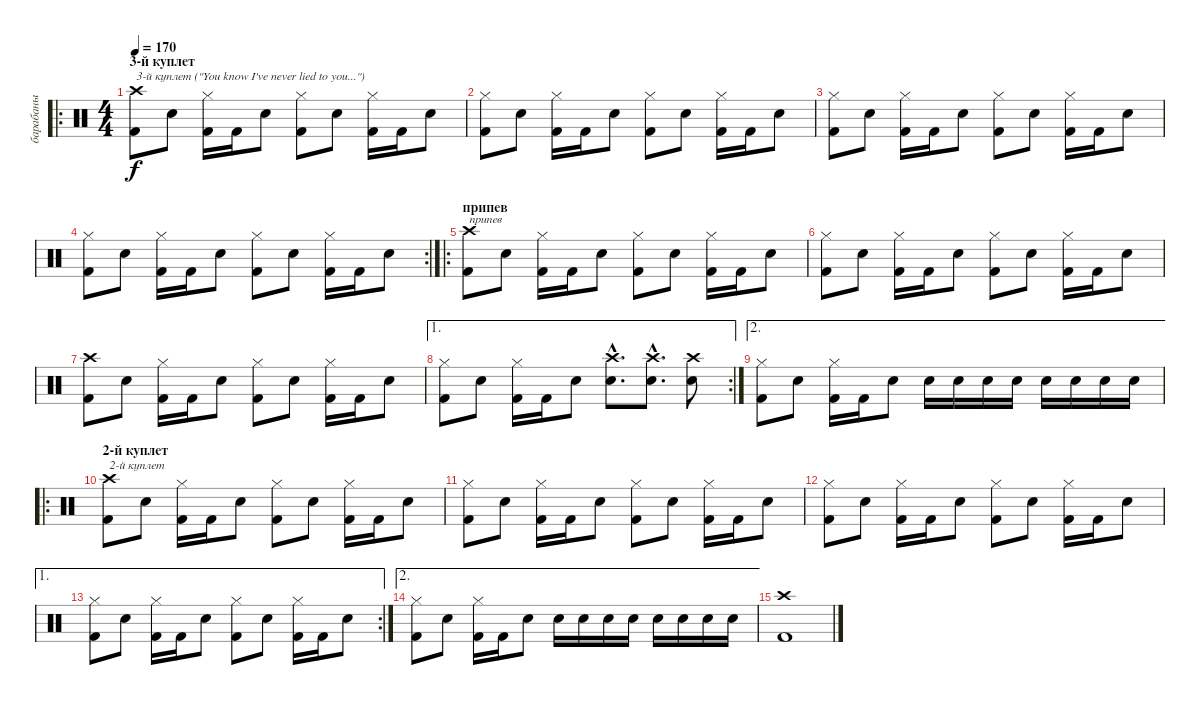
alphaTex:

\track ("барабаны" "барабаны") {instrument percussion}
\staff {score}
\articulation defaults
\ro
\ts (4 4)
\section ("" "3-й куплет")
\tempo 170
\clef neutral
\ks c
("Crash high (hit)" "Kick (hit) 2").8{txt "3-й куплет (\"You know I've never lied to you...\")" dy f} "Snare (hit) 2".8 ("Hi-Hat (closed)" "Kick (hit) 2").16 "Kick (hit) 2".16 "Snare (hit) 2".8 ("Hi-Hat (closed)" "Kick (hit) 2").8 "Snare (hit) 2".8 ("Hi-Hat (closed)" "Kick (hit) 2").16 "Kick (hit) 2".16 "Snare (hit) 2".8 |
("Hi-Hat (closed)" "Kick (hit) 2").8 "Snare (hit) 2".8 ("Hi-Hat (closed)" "Kick (hit) 2").16 "Kick (hit) 2".16 "Snare (hit) 2".8 ("Hi-Hat (closed)" "Kick (hit) 2").8 "Snare (hit) 2".8 ("Hi-Hat (closed)" "Kick (hit) 2").16 "Kick (hit) 2".16 "Snare (hit) 2".8 |
("Hi-Hat (closed)" "Kick (hit) 2").8 "Snare (hit) 2".8 ("Hi-Hat (closed)" "Kick (hit) 2").16 "Kick (hit) 2".16 "Snare (hit) 2".8 ("Hi-Hat (closed)" "Kick (hit) 2").8 "Snare (hit) 2".8 ("Hi-Hat (closed)" "Kick (hit) 2").16 "Kick (hit) 2".16 "Snare (hit) 2".8 |
\rc 2
("Hi-Hat (closed)" "Kick (hit) 2").8 "Snare (hit) 2".8 ("Hi-Hat (closed)" "Kick (hit) 2").16 "Kick (hit) 2".16 "Snare (hit) 2".8 ("Hi-Hat (closed)" "Kick (hit) 2").8 "Snare (hit) 2".8 ("Hi-Hat (closed)" "Kick (hit) 2").16 "Kick (hit) 2".16 "Snare (hit) 2".8 |
\ro
\section ("" "припев")
("Crash high (hit)" "Kick (hit) 2").8{txt "припев"} "Snare (hit) 2".8 ("Hi-Hat (closed)" "Kick (hit) 2").16 "Kick (hit) 2".16 "Snare (hit) 2".8 ("Hi-Hat (closed)" "Kick (hit) 2").8 "Snare (hit) 2".8 ("Hi-Hat (closed)" "Kick (hit) 2").16 "Kick (hit) 2".16 "Snare (hit) 2".8 |
("Hi-Hat (closed)" "Kick (hit) 2").8 "Snare (hit) 2".8 ("Hi-Hat (closed)" "Kick (hit) 2").16 "Kick (hit) 2".16 "Snare (hit) 2".8 ("Hi-Hat (closed)" "Kick (hit) 2").8 "Snare (hit) 2".8 ("Hi-Hat (closed)" "Kick (hit) 2").16 "Kick (hit) 2".16 "Snare (hit) 2".8 |
("Crash high (hit)" "Kick (hit) 2").8 "Snare (hit) 2".8 ("Hi-Hat (closed)" "Kick (hit) 2").16 "Kick (hit) 2".16 "Snare (hit) 2".8 ("Hi-Hat (closed)" "Kick (hit) 2").8 "Snare (hit) 2".8 ("Hi-Hat (closed)" "Kick (hit) 2").16 "Kick (hit) 2".16 "Snare (hit) 2".8 |
\ae 1
\rc 2
("Hi-Hat (closed)" "Kick (hit) 2").8 "Snare (hit) 2".8 ("Hi-Hat (closed)" "Kick (hit) 2").16 "Kick (hit) 2".16 "Snare (hit) 2".8 ("Crash high (hit)"{hac} "Snare (hit) 2"{hac}).8{d} ("Crash high (hit)"{hac} "Snare (hit) 2"{hac}).8{d} ("Crash high (hit)" "Snare (hit) 2").8 |
\ae 2
("Hi-Hat (closed)" "Kick (hit) 2").8 "Snare (hit) 2".8 ("Hi-Hat (closed)" "Kick (hit) 2").16 "Kick (hit) 2".16 "Snare (hit) 2".8 "Snare (hit) 2".16 "Snare (hit) 2".16 "Snare (hit) 2".16 "Snare (hit) 2".16 "Snare (hit) 2".16 "Snare (hit) 2".16 "Snare (hit) 2".16 "Snare (hit) 2".16 |
\ro
\section ("" "2-й куплет")
("Crash high (hit)" "Kick (hit) 2").8{txt "2-й куплет"} "Snare (hit) 2".8 ("Hi-Hat (closed)" "Kick (hit) 2").16 "Kick (hit) 2".16 "Snare (hit) 2".8 ("Hi-Hat (closed)" "Kick (hit) 2").8 "Snare (hit) 2".8 ("Hi-Hat (closed)" "Kick (hit) 2").16 "Kick (hit) 2".16 "Snare (hit) 2".8 |
("Hi-Hat (closed)" "Kick (hit) 2").8 "Snare (hit) 2".8 ("Hi-Hat (closed)" "Kick (hit) 2").16 "Kick (hit) 2".16 "Snare (hit) 2".8 ("Hi-Hat (closed)" "Kick (hit) 2").8 "Snare (hit) 2".8 ("Hi-Hat (closed)" "Kick (hit) 2").16 "Kick (hit) 2".16 "Snare (hit) 2".8 |
("Hi-Hat (closed)" "Kick (hit) 2").8 "Snare (hit) 2".8 ("Hi-Hat (closed)" "Kick (hit) 2").16 "Kick (hit) 2".16 "Snare (hit) 2".8 ("Hi-Hat (closed)" "Kick (hit) 2").8 "Snare (hit) 2".8 ("Hi-Hat (closed)" "Kick (hit) 2").16 "Kick (hit) 2".16 "Snare (hit) 2".8 |
\ae 1
\rc 2
("Hi-Hat (closed)" "Kick (hit) 2").8 "Snare (hit) 2".8 ("Hi-Hat (closed)" "Kick (hit) 2").16 "Kick (hit) 2".16 "Snare (hit) 2".8 ("Hi-Hat (closed)" "Kick (hit) 2").8 "Snare (hit) 2".8 ("Hi-Hat (closed)" "Kick (hit) 2").16 "Kick (hit) 2".16 "Snare (hit) 2".8 |
\ae 2
("Hi-Hat (closed)" "Kick (hit) 2").8 "Snare (hit) 2".8 ("Hi-Hat (closed)" "Kick (hit) 2").16 "Kick (hit) 2".16 "Snare (hit) 2".8 "Snare (hit) 2".16 "Snare (hit) 2".16 "Snare (hit) 2".16 "Snare (hit) 2".16 "Snare (hit) 2".16 "Snare (hit) 2".16 "Snare (hit) 2".16 "Snare (hit) 2".16 |
("Crash high (hit)" "Kick (hit) 2").1
